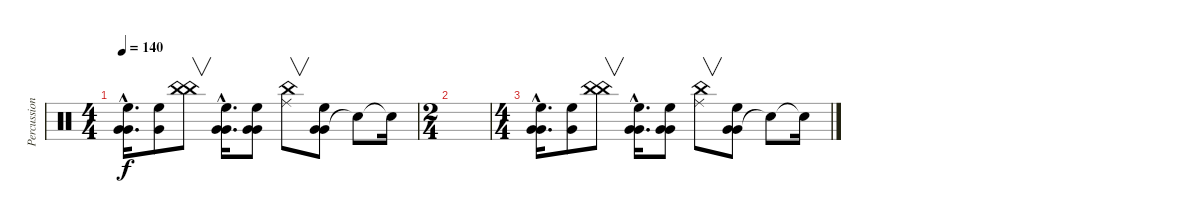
\track ("Percussion" "Percussion") {instrument percussion}
\staff {score}
\articulation defaults
\ts (4 4)
\tempo 140
\clef neutral
\ks c
("Very Low Tom (hit)" "Very Low Tom (hit)"{hac} "High Floor Tom (hit)"{hac}).16{d dy f} ("Very Low Tom (hit)" "High Floor Tom (hit)").8 ("China (hit)" "China (hit)").8{v} ("Very Low Tom (hit)" "Very Low Tom (hit)"{hac} "High Floor Tom (hit)"{hac}).16{d} ("Very Low Tom (hit)" "Very Low Tom (hit)" "High Floor Tom (hit)").8 ("Ride (middle)" "China (hit)").8{v} ("Very Low Tom (hit)" "Very Low Tom (hit)" "High Floor Tom (hit)").8 "Snare (hit)"{t}.8 "Snare (hit)"{t}.16 |
\ts (2 4)
|
\ts (4 4)
("Very Low Tom (hit)" "Very Low Tom (hit)"{hac} "High Floor Tom (hit)"{hac}).16{d} ("Very Low Tom (hit)" "High Floor Tom (hit)").8 ("China (hit)" "China (hit)").8{v} ("Very Low Tom (hit)" "Very Low Tom (hit)"{hac} "High Floor Tom (hit)"{hac}).16{d} ("Very Low Tom (hit)" "Very Low Tom (hit)" "High Floor Tom (hit)").8 ("Ride (middle)" "China (hit)").8{v} ("Very Low Tom (hit)" "Very Low Tom (hit)" "High Floor Tom (hit)").8 "Snare (hit)"{t}.8 "Snare (hit)"{t}.16
